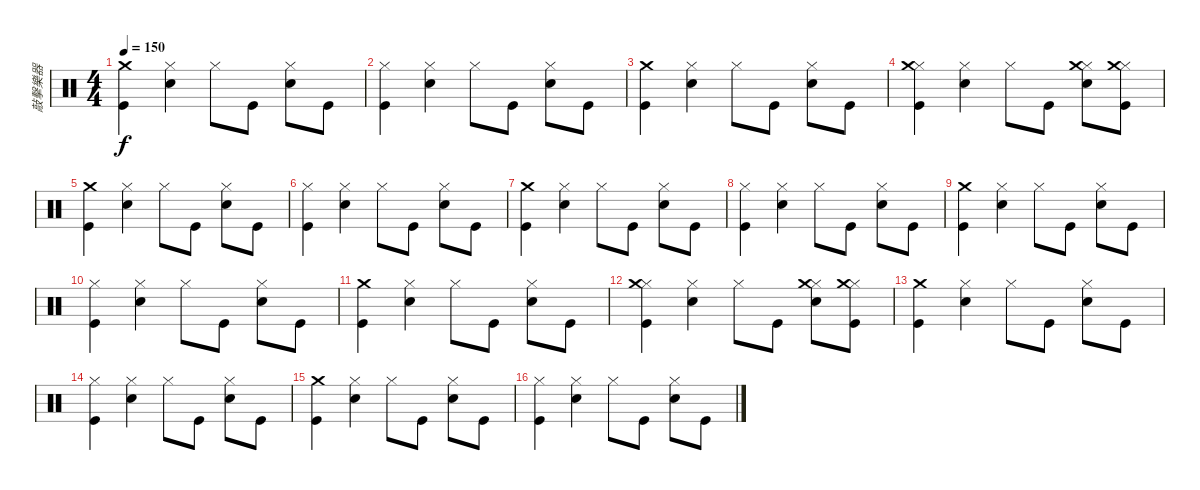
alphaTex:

\track ("敲擊樂器" "敲擊樂器") {instrument percussion}
\staff {score}
\articulation defaults
\ts (4 4)
\tempo 150
\clef neutral
\ks c
("Kick (hit)" "Crash medium (hit)").4{dy f} ("Snare (hit) 2" "Hi-Hat (closed)").4 "Hi-Hat (closed)".8 "Kick (hit)".8 ("Snare (hit) 2" "Hi-Hat (closed)").8 "Kick (hit)".8 |
("Kick (hit)" "Hi-Hat (closed)").4 ("Snare (hit) 2" "Hi-Hat (closed)").4 "Hi-Hat (closed)".8 "Kick (hit)".8 ("Snare (hit) 2" "Hi-Hat (closed)").8 "Kick (hit)".8 |
("Kick (hit)" "Crash medium (hit)").4 ("Snare (hit) 2" "Hi-Hat (closed)").4 "Hi-Hat (closed)".8 "Kick (hit)".8 ("Snare (hit) 2" "Hi-Hat (closed)").8 "Kick (hit)".8 |
("Kick (hit)" "Hi-Hat (closed)" "Crash medium (hit)").4 ("Snare (hit) 2" "Hi-Hat (closed)").4 "Hi-Hat (closed)".8 "Kick (hit)".8 ("Snare (hit) 2" "Hi-Hat (closed)" "Crash medium (hit)").8 ("Kick (hit)" "Hi-Hat (closed)" "Crash medium (hit)").8 |
("Kick (hit)" "Crash medium (hit)").4 ("Snare (hit) 2" "Hi-Hat (closed)").4 "Hi-Hat (closed)".8 "Kick (hit)".8 ("Snare (hit) 2" "Hi-Hat (closed)").8 "Kick (hit)".8 |
("Kick (hit)" "Hi-Hat (closed)").4 ("Snare (hit) 2" "Hi-Hat (closed)").4 "Hi-Hat (closed)".8 "Kick (hit)".8 ("Snare (hit) 2" "Hi-Hat (closed)").8 "Kick (hit)".8 |
("Kick (hit)" "Crash medium (hit)").4 ("Snare (hit) 2" "Hi-Hat (closed)").4 "Hi-Hat (closed)".8 "Kick (hit)".8 ("Snare (hit) 2" "Hi-Hat (closed)").8 "Kick (hit)".8 |
("Kick (hit)" "Hi-Hat (closed)").4 ("Snare (hit) 2" "Hi-Hat (closed)").4 "Hi-Hat (closed)".8 "Kick (hit)".8 ("Snare (hit) 2" "Hi-Hat (closed)").8 "Kick (hit)".8 |
("Kick (hit)" "Crash medium (hit)").4 ("Snare (hit) 2" "Hi-Hat (closed)").4 "Hi-Hat (closed)".8 "Kick (hit)".8 ("Snare (hit) 2" "Hi-Hat (closed)").8 "Kick (hit)".8 |
("Kick (hit)" "Hi-Hat (closed)").4 ("Snare (hit) 2" "Hi-Hat (closed)").4 "Hi-Hat (closed)".8 "Kick (hit)".8 ("Snare (hit) 2" "Hi-Hat (closed)").8 "Kick (hit)".8 |
("Kick (hit)" "Crash medium (hit)").4 ("Snare (hit) 2" "Hi-Hat (closed)").4 "Hi-Hat (closed)".8 "Kick (hit)".8 ("Snare (hit) 2" "Hi-Hat (closed)").8 "Kick (hit)".8 |
("Kick (hit)" "Hi-Hat (closed)" "Crash medium (hit)").4 ("Snare (hit) 2" "Hi-Hat (closed)").4 "Hi-Hat (closed)".8 "Kick (hit)".8 ("Snare (hit) 2" "Hi-Hat (closed)" "Crash medium (hit)").8 ("Kick (hit)" "Hi-Hat (closed)" "Crash medium (hit)").8 |
("Kick (hit)" "Crash medium (hit)").4 ("Snare (hit) 2" "Hi-Hat (closed)").4 "Hi-Hat (closed)".8 "Kick (hit)".8 ("Snare (hit) 2" "Hi-Hat (closed)").8 "Kick (hit)".8 |
("Kick (hit)" "Hi-Hat (closed)").4 ("Snare (hit) 2" "Hi-Hat (closed)").4 "Hi-Hat (closed)".8 "Kick (hit)".8 ("Snare (hit) 2" "Hi-Hat (closed)").8 "Kick (hit)".8 |
("Kick (hit)" "Crash medium (hit)").4 ("Snare (hit) 2" "Hi-Hat (closed)").4 "Hi-Hat (closed)".8 "Kick (hit)".8 ("Snare (hit) 2" "Hi-Hat (closed)").8 "Kick (hit)".8 |
("Kick (hit)" "Hi-Hat (closed)").4 ("Snare (hit) 2" "Hi-Hat (closed)").4 "Hi-Hat (closed)".8 "Kick (hit)".8 ("Snare (hit) 2" "Hi-Hat (closed)").8 "Kick (hit)".8
